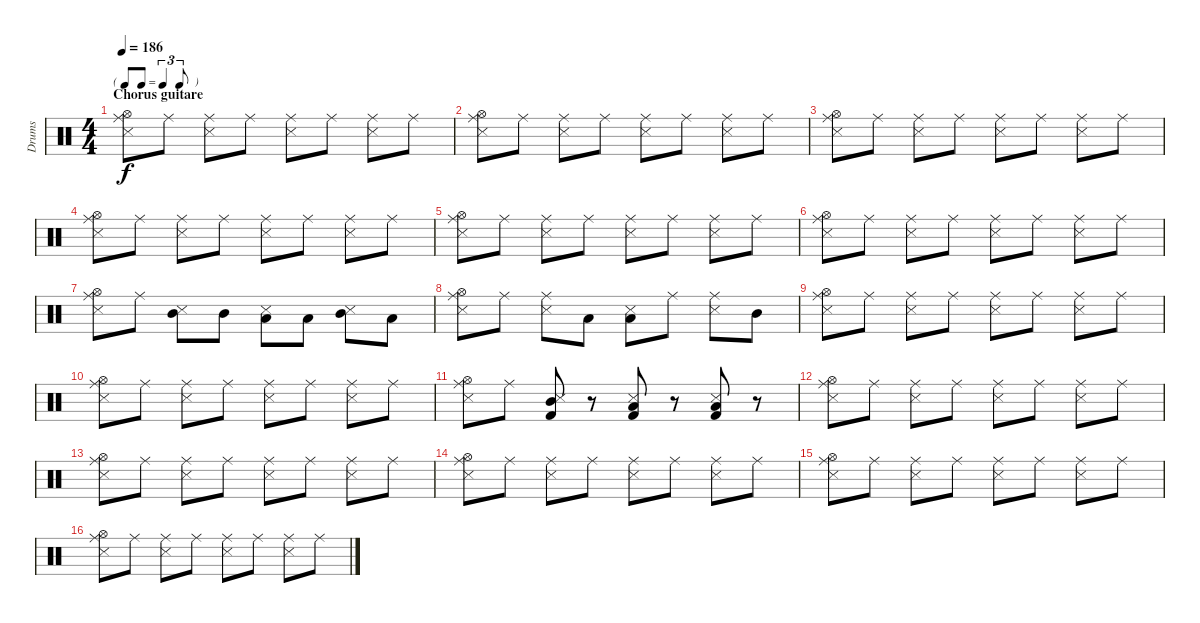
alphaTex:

\track ("Drums" "Drums") {instrument percussion}
\staff {score}
\articulation defaults
\ts (4 4)
\tf triplet8th
\section ("" "Chorus guitare")
\tempo 186
\clef neutral
\ks c
("Hi-Hat (open)" "Ride (middle)" "Snare (side stick) 3").8{dy f} "Ride (middle)".8 ("Ride (middle)" "Snare (side stick) 3").8 "Ride (middle)".8 ("Ride (middle)" "Snare (side stick) 3").8 "Ride (middle)".8 ("Ride (middle)" "Snare (side stick) 3").8 "Ride (middle)".8 |
("Hi-Hat (open)" "Ride (middle)" "Snare (side stick) 3").8 "Ride (middle)".8 ("Ride (middle)" "Snare (side stick) 3").8 "Ride (middle)".8 ("Ride (middle)" "Snare (side stick) 3").8 "Ride (middle)".8 ("Ride (middle)" "Snare (side stick) 3").8 "Ride (middle)".8 |
("Hi-Hat (open)" "Ride (middle)" "Snare (side stick) 3").8 "Ride (middle)".8 ("Ride (middle)" "Snare (side stick) 3").8 "Ride (middle)".8 ("Ride (middle)" "Snare (side stick) 3").8 "Ride (middle)".8 ("Ride (middle)" "Snare (side stick) 3").8 "Ride (middle)".8 |
("Hi-Hat (open)" "Ride (middle)" "Snare (side stick) 3").8 "Ride (middle)".8 ("Ride (middle)" "Snare (side stick) 3").8 "Ride (middle)".8 ("Ride (middle)" "Snare (side stick) 3").8 "Ride (middle)".8 ("Ride (middle)" "Snare (side stick) 3").8 "Ride (middle)".8 |
("Hi-Hat (open)" "Ride (middle)" "Snare (side stick) 3").8 "Ride (middle)".8 ("Ride (middle)" "Snare (side stick) 3").8 "Ride (middle)".8 ("Ride (middle)" "Snare (side stick) 3").8 "Ride (middle)".8 ("Ride (middle)" "Snare (side stick) 3").8 "Ride (middle)".8 |
("Hi-Hat (open)" "Ride (middle)" "Snare (side stick) 3").8 "Ride (middle)".8 ("Ride (middle)" "Snare (side stick) 3").8 "Ride (middle)".8 ("Ride (middle)" "Snare (side stick) 3").8 "Ride (middle)".8 ("Ride (middle)" "Snare (side stick) 3").8 "Ride (middle)".8 |
("Hi-Hat (open)" "Ride (middle)" "Snare (side stick) 3").8 "Ride (middle)".8 ("Mid Tom (hit)" "Snare (side stick) 3").8 "Mid Tom (hit)".8 ("Low Tom (hit)" "Snare (side stick) 3").8 "Low Tom (hit)".8 ("Mid Tom (hit)" "Snare (side stick) 3").8 "Low Tom (hit)".8 |
("Hi-Hat (open)" "Ride (middle)" "Snare (side stick) 3").8 "Ride (middle)".8 ("Ride (middle)" "Snare (side stick) 3").8 "Low Tom (hit)".8 ("Low Tom (hit)" "Snare (side stick) 3").8 "Ride (middle)".8 ("Ride (middle)" "Snare (side stick) 3").8 "Mid Tom (hit)".8 |
("Hi-Hat (open)" "Ride (middle)" "Snare (side stick) 3").8 "Ride (middle)".8 ("Ride (middle)" "Snare (side stick) 3").8 "Ride (middle)".8 ("Ride (middle)" "Snare (side stick) 3").8 "Ride (middle)".8 ("Ride (middle)" "Snare (side stick) 3").8 "Ride (middle)".8 |
("Hi-Hat (open)" "Ride (middle)" "Snare (side stick) 3").8 "Ride (middle)".8 ("Ride (middle)" "Snare (side stick) 3").8 "Ride (middle)".8 ("Ride (middle)" "Snare (side stick) 3").8 "Ride (middle)".8 ("Ride (middle)" "Snare (side stick) 3").8 "Ride (middle)".8 |
("Hi-Hat (open)" "Ride (middle)" "Snare (side stick) 3").8 "Ride (middle)".8 ("Mid Tom (hit)" "Snare (side stick) 3" "Kick (hit) 2").8 r.8 ("Low Tom (hit)" "Snare (side stick) 3" "Kick (hit) 2").8 r.8 ("Low Tom (hit)" "Snare (side stick) 3" "Kick (hit) 2").8 r.8 |
("Hi-Hat (open)" "Ride (middle)" "Snare (side stick) 3").8 "Ride (middle)".8 ("Ride (middle)" "Snare (side stick) 3").8 "Ride (middle)".8 ("Ride (middle)" "Snare (side stick) 3").8 "Ride (middle)".8 ("Ride (middle)" "Snare (side stick) 3").8 "Ride (middle)".8 |
("Hi-Hat (open)" "Ride (middle)" "Snare (side stick) 3").8 "Ride (middle)".8 ("Ride (middle)" "Snare (side stick) 3").8 "Ride (middle)".8 ("Ride (middle)" "Snare (side stick) 3").8 "Ride (middle)".8 ("Ride (middle)" "Snare (side stick) 3").8 "Ride (middle)".8 |
("Hi-Hat (open)" "Ride (middle)" "Snare (side stick) 3").8 "Ride (middle)".8 ("Ride (middle)" "Snare (side stick) 3").8 "Ride (middle)".8 ("Ride (middle)" "Snare (side stick) 3").8 "Ride (middle)".8 ("Ride (middle)" "Snare (side stick) 3").8 "Ride (middle)".8 |
("Hi-Hat (open)" "Ride (middle)" "Snare (side stick) 3").8 "Ride (middle)".8 ("Ride (middle)" "Snare (side stick) 3").8 "Ride (middle)".8 ("Ride (middle)" "Snare (side stick) 3").8 "Ride (middle)".8 ("Ride (middle)" "Snare (side stick) 3").8 "Ride (middle)".8 |
("Hi-Hat (open)" "Ride (middle)" "Snare (side stick) 3").8 "Ride (middle)".8 ("Ride (middle)" "Snare (side stick) 3").8 "Ride (middle)".8 ("Ride (middle)" "Snare (side stick) 3").8 "Ride (middle)".8 ("Ride (middle)" "Snare (side stick) 3").8 "Ride (middle)".8
